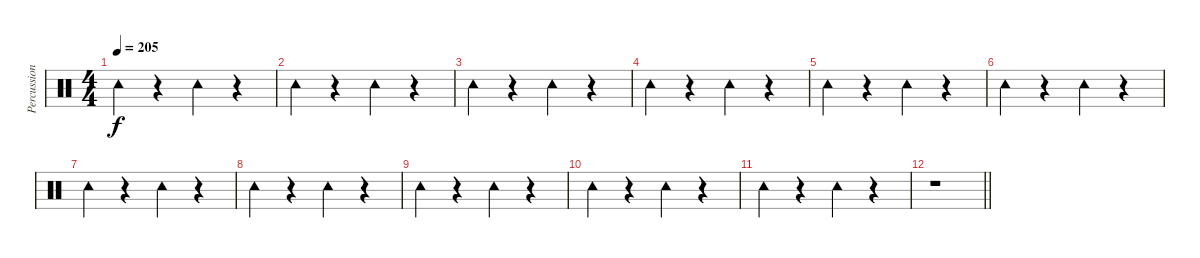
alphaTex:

\track ("Percussion" "Percussion") {instrument percussion}
\staff {score}
\articulation defaults
\ts (4 4)
\tempo 205
\clef neutral
\ks c "Tambourine (hit)".4{dy f}
r.4 "Tambourine (hit)".4 r.4 |
"Tambourine (hit)".4 r.4 "Tambourine (hit)".4 r.4 |
"Tambourine (hit)".4 r.4 "Tambourine (hit)".4 r.4 |
"Tambourine (hit)".4 r.4 "Tambourine (hit)".4 r.4 |
"Tambourine (hit)".4 r.4 "Tambourine (hit)".4 r.4 |
"Tambourine (hit)".4 r.4 "Tambourine (hit)".4 r.4 |
"Tambourine (hit)".4 r.4 "Tambourine (hit)".4 r.4 |
"Tambourine (hit)".4 r.4 "Tambourine (hit)".4 r.4 |
"Tambourine (hit)".4 r.4 "Tambourine (hit)".4 r.4 |
"Tambourine (hit)".4 r.4 "Tambourine (hit)".4 r.4 |
"Tambourine (hit)".4 r.4 "Tambourine (hit)".4 r.4 |
\barLineRight lightlight
r.1
